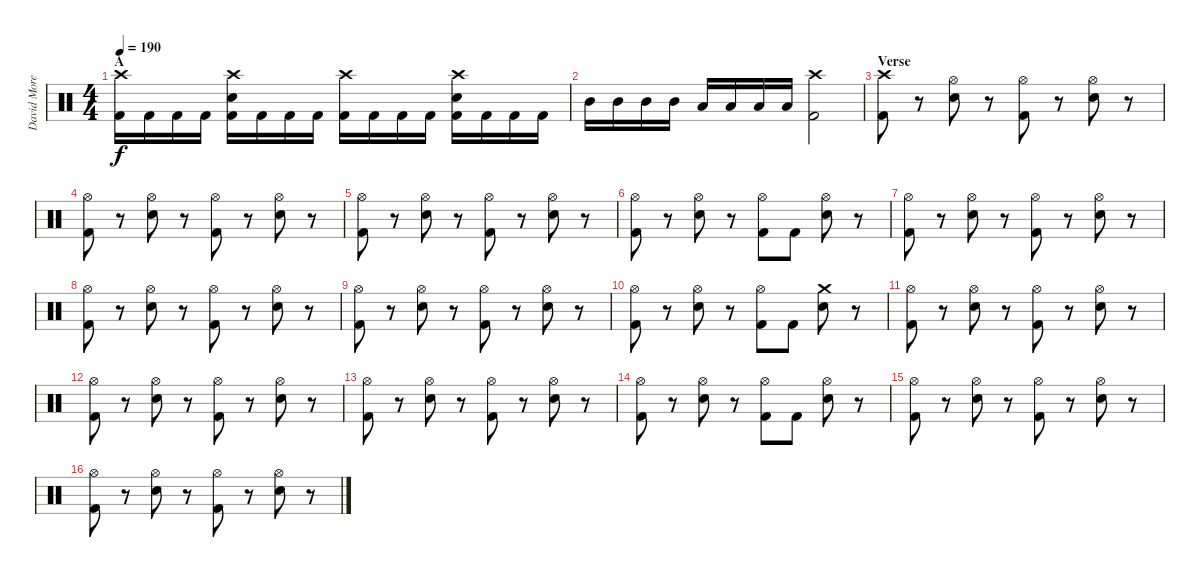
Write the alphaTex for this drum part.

\track ("David Moreno" "David More") {instrument percussion}
\staff {score}
\articulation defaults
\ts (4 4)
\section ("" "A")
\tempo 190
\clef neutral
\ks c
("Crash high (hit)" "Kick (hit) 2").16{dy f} "Kick (hit) 2".16 "Kick (hit) 2".16 "Kick (hit) 2".16 ("Crash high (hit)" "Snare (hit) 2" "Kick (hit) 2").16 "Kick (hit) 2".16 "Kick (hit) 2".16 "Kick (hit) 2".16 ("Crash high (hit)" "Kick (hit) 2").16 "Kick (hit) 2".16 "Kick (hit) 2".16 "Kick (hit) 2".16 ("Crash high (hit)" "Snare (hit) 2" "Kick (hit) 2").16 "Kick (hit) 2".16 "Kick (hit) 2".16 "Kick (hit) 2".16 |
"Mid Tom (hit)".16 "Mid Tom (hit)".16 "Mid Tom (hit)".16 "Mid Tom (hit)".16 "Low Tom (hit)".16 "Low Tom (hit)".16 "Low Floor Tom (hit)".16 "Low Floor Tom (hit)".16 ("Crash high (hit)" "Kick (hit) 2").2 |
\section ("" "Verse")
("Crash high (hit)" "Kick (hit) 2").8 r.8 ("Hi-Hat (open)" "Snare (hit) 2").8 r.8 ("Hi-Hat (open)" "Kick (hit) 2").8 r.8 ("Hi-Hat (open)" "Snare (hit) 2").8 r.8 |
("Hi-Hat (open)" "Kick (hit) 2").8 r.8 ("Hi-Hat (open)" "Snare (hit) 2").8 r.8 ("Hi-Hat (open)" "Kick (hit) 2").8 r.8 ("Hi-Hat (open)" "Snare (hit) 2").8 r.8 |
("Hi-Hat (open)" "Kick (hit) 2").8 r.8 ("Hi-Hat (open)" "Snare (hit) 2").8 r.8 ("Hi-Hat (open)" "Kick (hit) 2").8 r.8 ("Hi-Hat (open)" "Snare (hit) 2").8 r.8 |
("Hi-Hat (open)" "Kick (hit) 2").8 r.8 ("Hi-Hat (open)" "Snare (hit) 2").8 r.8 ("Hi-Hat (open)" "Kick (hit) 2").8 "Kick (hit) 2".8 ("Hi-Hat (open)" "Snare (hit) 2").8 r.8 |
("Hi-Hat (open)" "Kick (hit) 2").8 r.8 ("Hi-Hat (open)" "Snare (hit) 2").8 r.8 ("Hi-Hat (open)" "Kick (hit) 2").8 r.8 ("Hi-Hat (open)" "Snare (hit) 2").8 r.8 |
("Hi-Hat (open)" "Kick (hit) 2").8 r.8 ("Hi-Hat (open)" "Snare (hit) 2").8 r.8 ("Hi-Hat (open)" "Kick (hit) 2").8 r.8 ("Hi-Hat (open)" "Snare (hit) 2").8 r.8 |
("Hi-Hat (open)" "Kick (hit) 2").8 r.8 ("Hi-Hat (open)" "Snare (hit) 2").8 r.8 ("Hi-Hat (open)" "Kick (hit) 2").8 r.8 ("Hi-Hat (open)" "Snare (hit) 2").8 r.8 |
("Hi-Hat (open)" "Kick (hit) 2").8 r.8 ("Hi-Hat (open)" "Snare (hit) 2").8 r.8 ("Hi-Hat (open)" "Kick (hit) 2").8 "Kick (hit) 2".8 ("Crash medium (hit)" "Snare (hit) 2").8 r.8 |
("Hi-Hat (open)" "Kick (hit) 2").8 r.8 ("Hi-Hat (open)" "Snare (hit) 2").8 r.8 ("Hi-Hat (open)" "Kick (hit) 2").8 r.8 ("Hi-Hat (open)" "Snare (hit) 2").8 r.8 |
("Hi-Hat (open)" "Kick (hit) 2").8 r.8 ("Hi-Hat (open)" "Snare (hit) 2").8 r.8 ("Hi-Hat (open)" "Kick (hit) 2").8 r.8 ("Hi-Hat (open)" "Snare (hit) 2").8 r.8 |
("Hi-Hat (open)" "Kick (hit) 2").8 r.8 ("Hi-Hat (open)" "Snare (hit) 2").8 r.8 ("Hi-Hat (open)" "Kick (hit) 2").8 r.8 ("Hi-Hat (open)" "Snare (hit) 2").8 r.8 |
("Hi-Hat (open)" "Kick (hit) 2").8 r.8 ("Hi-Hat (open)" "Snare (hit) 2").8 r.8 ("Hi-Hat (open)" "Kick (hit) 2").8 "Kick (hit) 2".8 ("Hi-Hat (open)" "Snare (hit) 2").8 r.8 |
("Hi-Hat (open)" "Kick (hit) 2").8 r.8 ("Hi-Hat (open)" "Snare (hit) 2").8 r.8 ("Hi-Hat (open)" "Kick (hit) 2").8 r.8 ("Hi-Hat (open)" "Snare (hit) 2").8 r.8 |
("Hi-Hat (open)" "Kick (hit) 2").8 r.8 ("Hi-Hat (open)" "Snare (hit) 2").8 r.8 ("Hi-Hat (open)" "Kick (hit) 2").8 r.8 ("Hi-Hat (open)" "Snare (hit) 2").8 r.8
